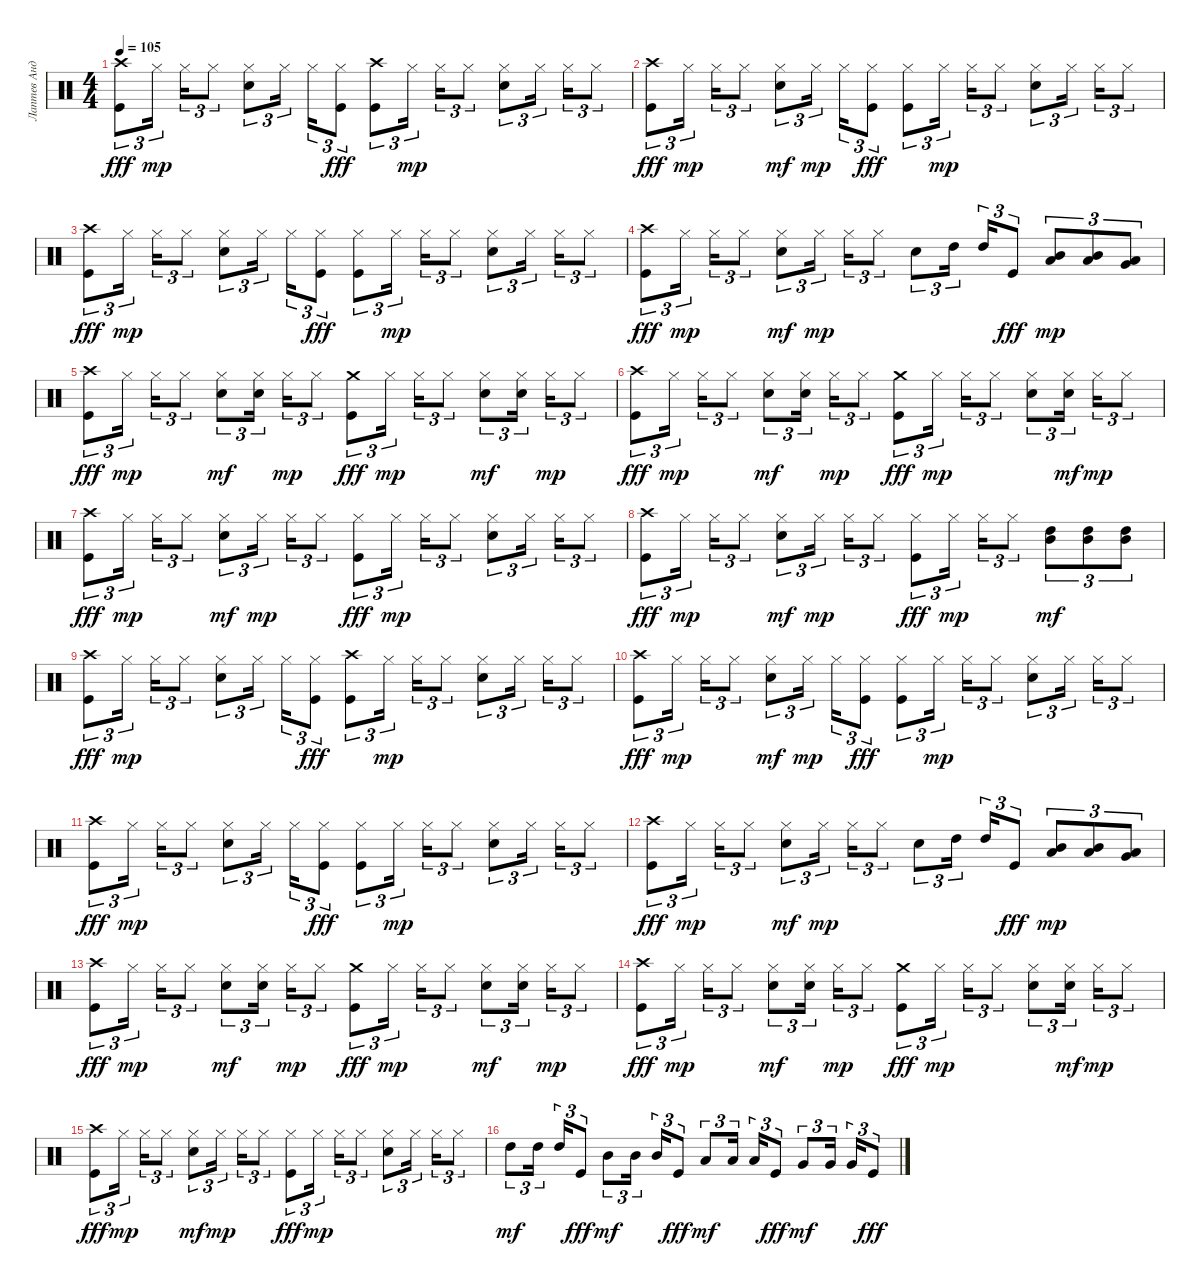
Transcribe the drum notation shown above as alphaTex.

\track ("Лаптев Андрей" "Лаптев Анд") {instrument percussion}
\staff {score}
\articulation defaults
\ts (4 4)
\tempo 105
\clef neutral
\ks c
("Crash high (hit)" "Kick (hit)").8{tu (3 2) dy fff} "Hi-Hat (closed)".16{tu (3 2) dy mp} "Hi-Hat (closed)".16{tu (3 2)} "Hi-Hat (closed)".8{tu (3 2)} ("Electric Snare (hit)" "Hi-Hat (closed)").8{tu (3 2)} "Hi-Hat (closed)".16{tu (3 2)} "Hi-Hat (closed)".16{tu (3 2)} ("Hi-Hat (closed)" "Kick (hit)").8{tu (3 2) dy fff} ("Crash high (hit)" "Kick (hit)").8{tu (3 2)} "Hi-Hat (closed)".16{tu (3 2) dy mp} "Hi-Hat (closed)".16{tu (3 2)} "Hi-Hat (closed)".8{tu (3 2)} ("Hi-Hat (closed)" "Electric Snare (hit)").8{tu (3 2)} "Hi-Hat (closed)".16{tu (3 2)} "Hi-Hat (closed)".16{tu (3 2)} "Hi-Hat (closed)".8{tu (3 2)} |
("Crash high (hit)" "Kick (hit)").8{tu (3 2) dy fff} "Hi-Hat (closed)".16{tu (3 2) dy mp} "Hi-Hat (closed)".16{tu (3 2)} "Hi-Hat (closed)".8{tu (3 2)} ("Hi-Hat (closed)" "Electric Snare (hit)").8{tu (3 2) dy mf} "Hi-Hat (closed)".16{tu (3 2) dy mp} "Hi-Hat (closed)".16{tu (3 2)} ("Hi-Hat (closed)" "Kick (hit)").8{tu (3 2) dy fff} ("Hi-Hat (closed)" "Kick (hit)").8{tu (3 2)} "Hi-Hat (closed)".16{tu (3 2) dy mp} "Hi-Hat (closed)".16{tu (3 2)} "Hi-Hat (closed)".8{tu (3 2)} ("Hi-Hat (closed)" "Electric Snare (hit)").8{tu (3 2)} "Hi-Hat (closed)".16{tu (3 2)} "Hi-Hat (closed)".16{tu (3 2)} "Hi-Hat (closed)".8{tu (3 2)} |
("Crash high (hit)" "Kick (hit)").8{tu (3 2) dy fff} "Hi-Hat (closed)".16{tu (3 2) dy mp} "Hi-Hat (closed)".16{tu (3 2)} "Hi-Hat (closed)".8{tu (3 2)} ("Electric Snare (hit)" "Hi-Hat (closed)").8{tu (3 2)} "Hi-Hat (closed)".16{tu (3 2)} "Hi-Hat (closed)".16{tu (3 2)} ("Hi-Hat (closed)" "Kick (hit)").8{tu (3 2) dy fff} ("Hi-Hat (closed)" "Kick (hit)").8{tu (3 2)} "Hi-Hat (closed)".16{tu (3 2) dy mp} "Hi-Hat (closed)".16{tu (3 2)} "Hi-Hat (closed)".8{tu (3 2)} ("Hi-Hat (closed)" "Electric Snare (hit)").8{tu (3 2)} "Hi-Hat (closed)".16{tu (3 2)} "Hi-Hat (closed)".16{tu (3 2)} "Hi-Hat (closed)".8{tu (3 2)} |
("Crash high (hit)" "Kick (hit)").8{tu (3 2) dy fff} "Hi-Hat (closed)".16{tu (3 2) dy mp} "Hi-Hat (closed)".16{tu (3 2)} "Hi-Hat (closed)".8{tu (3 2)} ("Hi-Hat (closed)" "Electric Snare (hit)").8{tu (3 2) dy mf} "Hi-Hat (closed)".16{tu (3 2) dy mp} "Hi-Hat (closed)".16{tu (3 2)} "Hi-Hat (closed)".8{tu (3 2)} "Electric Snare (hit)".8{tu (3 2)} "High Tom (hit)".16{tu (3 2)} "High Tom (hit)".16{tu (3 2)} "Kick (hit)".8{tu (3 2) dy fff} ("Low Tom (hit)" "Mid Tom (hit)").8{tu (3 2) dy mp} ("Mid Tom (hit)" "Low Tom (hit)").8{tu (3 2)} ("Very Low Tom (hit)" "Low Tom (hit)").8{tu (3 2)} |
("Crash high (hit)" "Kick (hit)").8{tu (3 2) dy fff} "Hi-Hat (closed)".16{tu (3 2) dy mp} "Hi-Hat (closed)".16{tu (3 2)} "Hi-Hat (closed)".8{tu (3 2)} ("Hi-Hat (closed)" "Electric Snare (hit)").8{tu (3 2) dy mf} ("Hi-Hat (closed)" "Electric Snare (hit)").16{tu (3 2)} "Hi-Hat (closed)".16{tu (3 2) dy mp} "Hi-Hat (closed)".8{tu (3 2)} ("Crash medium (hit)" "Kick (hit)").8{tu (3 2) dy fff} "Hi-Hat (closed)".16{tu (3 2) dy mp} "Hi-Hat (closed)".16{tu (3 2)} "Hi-Hat (closed)".8{tu (3 2)} ("Hi-Hat (closed)" "Electric Snare (hit)").8{tu (3 2) dy mf} ("Hi-Hat (closed)" "Electric Snare (hit)").16{tu (3 2)} "Hi-Hat (closed)".16{tu (3 2) dy mp} "Hi-Hat (closed)".8{tu (3 2)} |
("Crash high (hit)" "Kick (hit)").8{tu (3 2) dy fff} "Hi-Hat (closed)".16{tu (3 2) dy mp} "Hi-Hat (closed)".16{tu (3 2)} "Hi-Hat (closed)".8{tu (3 2)} ("Hi-Hat (closed)" "Electric Snare (hit)").8{tu (3 2) dy mf} ("Hi-Hat (closed)" "Electric Snare (hit)").16{tu (3 2)} "Hi-Hat (closed)".16{tu (3 2) dy mp} "Hi-Hat (closed)".8{tu (3 2)} ("Crash medium (hit)" "Kick (hit)").8{tu (3 2) dy fff} "Hi-Hat (closed)".16{tu (3 2) dy mp} "Hi-Hat (closed)".16{tu (3 2)} "Hi-Hat (closed)".8{tu (3 2)} ("Hi-Hat (closed)" "Electric Snare (hit)").8{tu (3 2)} ("Hi-Hat (closed)" "Electric Snare (hit)").16{tu (3 2) dy mf} "Hi-Hat (closed)".16{tu (3 2) dy mp} "Hi-Hat (closed)".8{tu (3 2)} |
("Crash high (hit)" "Kick (hit)").8{tu (3 2) dy fff} "Hi-Hat (closed)".16{tu (3 2) dy mp} "Hi-Hat (closed)".16{tu (3 2)} "Hi-Hat (closed)".8{tu (3 2)} ("Hi-Hat (closed)" "Electric Snare (hit)").8{tu (3 2) dy mf} "Hi-Hat (closed)".16{tu (3 2) dy mp} "Hi-Hat (closed)".16{tu (3 2)} "Hi-Hat (closed)".8{tu (3 2)} ("Hi-Hat (closed)" "Kick (hit)").8{tu (3 2) dy fff} "Hi-Hat (closed)".16{tu (3 2) dy mp} "Hi-Hat (closed)".16{tu (3 2)} "Hi-Hat (closed)".8{tu (3 2)} ("Hi-Hat (closed)" "Electric Snare (hit)").8{tu (3 2)} "Hi-Hat (closed)".16{tu (3 2)} "Hi-Hat (closed)".16{tu (3 2)} "Hi-Hat (closed)".8{tu (3 2)} |
("Crash high (hit)" "Kick (hit)").8{tu (3 2) dy fff} "Hi-Hat (closed)".16{tu (3 2) dy mp} "Hi-Hat (closed)".16{tu (3 2)} "Hi-Hat (closed)".8{tu (3 2)} ("Hi-Hat (closed)" "Electric Snare (hit)").8{tu (3 2) dy mf} "Hi-Hat (closed)".16{tu (3 2) dy mp} "Hi-Hat (closed)".16{tu (3 2)} "Hi-Hat (closed)".8{tu (3 2)} ("Hi-Hat (closed)" "Kick (hit)").8{tu (3 2) dy fff} "Hi-Hat (closed)".16{tu (3 2) dy mp} "Hi-Hat (closed)".16{tu (3 2)} "Hi-Hat (closed)".8{tu (3 2)} ("Mid Tom (hit)" "High Tom (hit)").8{tu (3 2) dy mf} ("High Tom (hit)" "Mid Tom (hit)").8{tu (3 2)} ("Mid Tom (hit)" "High Tom (hit)").8{tu (3 2)} |
("Crash high (hit)" "Kick (hit)").8{tu (3 2) dy fff} "Hi-Hat (closed)".16{tu (3 2) dy mp} "Hi-Hat (closed)".16{tu (3 2)} "Hi-Hat (closed)".8{tu (3 2)} ("Electric Snare (hit)" "Hi-Hat (closed)").8{tu (3 2)} "Hi-Hat (closed)".16{tu (3 2)} "Hi-Hat (closed)".16{tu (3 2)} ("Hi-Hat (closed)" "Kick (hit)").8{tu (3 2) dy fff} ("Crash high (hit)" "Kick (hit)").8{tu (3 2)} "Hi-Hat (closed)".16{tu (3 2) dy mp} "Hi-Hat (closed)".16{tu (3 2)} "Hi-Hat (closed)".8{tu (3 2)} ("Hi-Hat (closed)" "Electric Snare (hit)").8{tu (3 2)} "Hi-Hat (closed)".16{tu (3 2)} "Hi-Hat (closed)".16{tu (3 2)} "Hi-Hat (closed)".8{tu (3 2)} |
("Crash high (hit)" "Kick (hit)").8{tu (3 2) dy fff} "Hi-Hat (closed)".16{tu (3 2) dy mp} "Hi-Hat (closed)".16{tu (3 2)} "Hi-Hat (closed)".8{tu (3 2)} ("Hi-Hat (closed)" "Electric Snare (hit)").8{tu (3 2) dy mf} "Hi-Hat (closed)".16{tu (3 2) dy mp} "Hi-Hat (closed)".16{tu (3 2)} ("Hi-Hat (closed)" "Kick (hit)").8{tu (3 2) dy fff} ("Hi-Hat (closed)" "Kick (hit)").8{tu (3 2)} "Hi-Hat (closed)".16{tu (3 2) dy mp} "Hi-Hat (closed)".16{tu (3 2)} "Hi-Hat (closed)".8{tu (3 2)} ("Hi-Hat (closed)" "Electric Snare (hit)").8{tu (3 2)} "Hi-Hat (closed)".16{tu (3 2)} "Hi-Hat (closed)".16{tu (3 2)} "Hi-Hat (closed)".8{tu (3 2)} |
("Crash high (hit)" "Kick (hit)").8{tu (3 2) dy fff} "Hi-Hat (closed)".16{tu (3 2) dy mp} "Hi-Hat (closed)".16{tu (3 2)} "Hi-Hat (closed)".8{tu (3 2)} ("Electric Snare (hit)" "Hi-Hat (closed)").8{tu (3 2)} "Hi-Hat (closed)".16{tu (3 2)} "Hi-Hat (closed)".16{tu (3 2)} ("Hi-Hat (closed)" "Kick (hit)").8{tu (3 2) dy fff} ("Hi-Hat (closed)" "Kick (hit)").8{tu (3 2)} "Hi-Hat (closed)".16{tu (3 2) dy mp} "Hi-Hat (closed)".16{tu (3 2)} "Hi-Hat (closed)".8{tu (3 2)} ("Hi-Hat (closed)" "Electric Snare (hit)").8{tu (3 2)} "Hi-Hat (closed)".16{tu (3 2)} "Hi-Hat (closed)".16{tu (3 2)} "Hi-Hat (closed)".8{tu (3 2)} |
("Crash high (hit)" "Kick (hit)").8{tu (3 2) dy fff} "Hi-Hat (closed)".16{tu (3 2) dy mp} "Hi-Hat (closed)".16{tu (3 2)} "Hi-Hat (closed)".8{tu (3 2)} ("Hi-Hat (closed)" "Electric Snare (hit)").8{tu (3 2) dy mf} "Hi-Hat (closed)".16{tu (3 2) dy mp} "Hi-Hat (closed)".16{tu (3 2)} "Hi-Hat (closed)".8{tu (3 2)} "Electric Snare (hit)".8{tu (3 2)} "High Tom (hit)".16{tu (3 2)} "High Tom (hit)".16{tu (3 2)} "Kick (hit)".8{tu (3 2) dy fff} ("Low Tom (hit)" "Mid Tom (hit)").8{tu (3 2) dy mp} ("Mid Tom (hit)" "Low Tom (hit)").8{tu (3 2)} ("Very Low Tom (hit)" "Low Tom (hit)").8{tu (3 2)} |
("Crash high (hit)" "Kick (hit)").8{tu (3 2) dy fff} "Hi-Hat (closed)".16{tu (3 2) dy mp} "Hi-Hat (closed)".16{tu (3 2)} "Hi-Hat (closed)".8{tu (3 2)} ("Hi-Hat (closed)" "Electric Snare (hit)").8{tu (3 2) dy mf} ("Hi-Hat (closed)" "Electric Snare (hit)").16{tu (3 2)} "Hi-Hat (closed)".16{tu (3 2) dy mp} "Hi-Hat (closed)".8{tu (3 2)} ("Crash medium (hit)" "Kick (hit)").8{tu (3 2) dy fff} "Hi-Hat (closed)".16{tu (3 2) dy mp} "Hi-Hat (closed)".16{tu (3 2)} "Hi-Hat (closed)".8{tu (3 2)} ("Hi-Hat (closed)" "Electric Snare (hit)").8{tu (3 2) dy mf} ("Hi-Hat (closed)" "Electric Snare (hit)").16{tu (3 2)} "Hi-Hat (closed)".16{tu (3 2) dy mp} "Hi-Hat (closed)".8{tu (3 2)} |
("Crash high (hit)" "Kick (hit)").8{tu (3 2) dy fff} "Hi-Hat (closed)".16{tu (3 2) dy mp} "Hi-Hat (closed)".16{tu (3 2)} "Hi-Hat (closed)".8{tu (3 2)} ("Hi-Hat (closed)" "Electric Snare (hit)").8{tu (3 2) dy mf} ("Hi-Hat (closed)" "Electric Snare (hit)").16{tu (3 2)} "Hi-Hat (closed)".16{tu (3 2) dy mp} "Hi-Hat (closed)".8{tu (3 2)} ("Crash medium (hit)" "Kick (hit)").8{tu (3 2) dy fff} "Hi-Hat (closed)".16{tu (3 2) dy mp} "Hi-Hat (closed)".16{tu (3 2)} "Hi-Hat (closed)".8{tu (3 2)} ("Hi-Hat (closed)" "Electric Snare (hit)").8{tu (3 2)} ("Hi-Hat (closed)" "Electric Snare (hit)").16{tu (3 2) dy mf} "Hi-Hat (closed)".16{tu (3 2) dy mp} "Hi-Hat (closed)".8{tu (3 2)} |
("Crash high (hit)" "Kick (hit)").8{tu (3 2) dy fff} "Hi-Hat (closed)".16{tu (3 2) dy mp} "Hi-Hat (closed)".16{tu (3 2)} "Hi-Hat (closed)".8{tu (3 2)} ("Hi-Hat (closed)" "Electric Snare (hit)").8{tu (3 2) dy mf} "Hi-Hat (closed)".16{tu (3 2) dy mp} "Hi-Hat (closed)".16{tu (3 2)} "Hi-Hat (closed)".8{tu (3 2)} ("Hi-Hat (closed)" "Kick (hit)").8{tu (3 2) dy fff} "Hi-Hat (closed)".16{tu (3 2) dy mp} "Hi-Hat (closed)".16{tu (3 2)} "Hi-Hat (closed)".8{tu (3 2)} ("Hi-Hat (closed)" "Electric Snare (hit)").8{tu (3 2)} "Hi-Hat (closed)".16{tu (3 2)} "Hi-Hat (closed)".16{tu (3 2)} "Hi-Hat (closed)".8{tu (3 2)} |
"High Tom (hit)".8{tu (3 2) dy mf} "High Tom (hit)".16{tu (3 2)} "High Tom (hit)".16{tu (3 2)} "Kick (hit)".8{tu (3 2) dy fff} "Mid Tom (hit)".8{tu (3 2) dy mf} "Mid Tom (hit)".16{tu (3 2)} "Mid Tom (hit)".16{tu (3 2)} "Kick (hit)".8{tu (3 2) dy fff} "Low Tom (hit)".8{tu (3 2) dy mf} "Low Tom (hit)".16{tu (3 2)} "Low Tom (hit)".16{tu (3 2)} "Kick (hit)".8{tu (3 2) dy fff} "Very Low Tom (hit)".8{tu (3 2) dy mf} "Very Low Tom (hit)".16{tu (3 2)} "Very Low Tom (hit)".16{tu (3 2)} "Kick (hit)".8{tu (3 2) dy fff}
